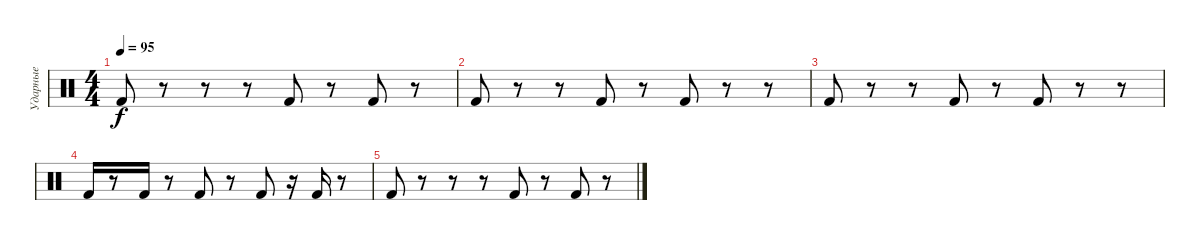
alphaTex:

\track ("Ударные" "Ударные") {instrument percussion}
\staff {score}
\articulation defaults
\ts (4 4)
\tempo 95
\clef neutral
\ks c "Kick (hit) 2".8{dy f}
r.8 r.8 r.8 "Kick (hit) 2".8 r.8 "Kick (hit) 2".8 r.8 |
"Kick (hit) 2".8 r.8 r.8 "Kick (hit) 2".8 r.8 "Kick (hit) 2".8 r.8 r.8 |
"Kick (hit) 2".8 r.8 r.8 "Kick (hit) 2".8 r.8 "Kick (hit) 2".8 r.8 r.8 |
"Kick (hit) 2".16 r.8 "Kick (hit) 2".16 r.8 "Kick (hit) 2".8 r.8 "Kick (hit) 2".8 r.16 "Kick (hit) 2".16 r.8 |
"Kick (hit) 2".8 r.8 r.8 r.8 "Kick (hit) 2".8 r.8 "Kick (hit) 2".8 r.8
